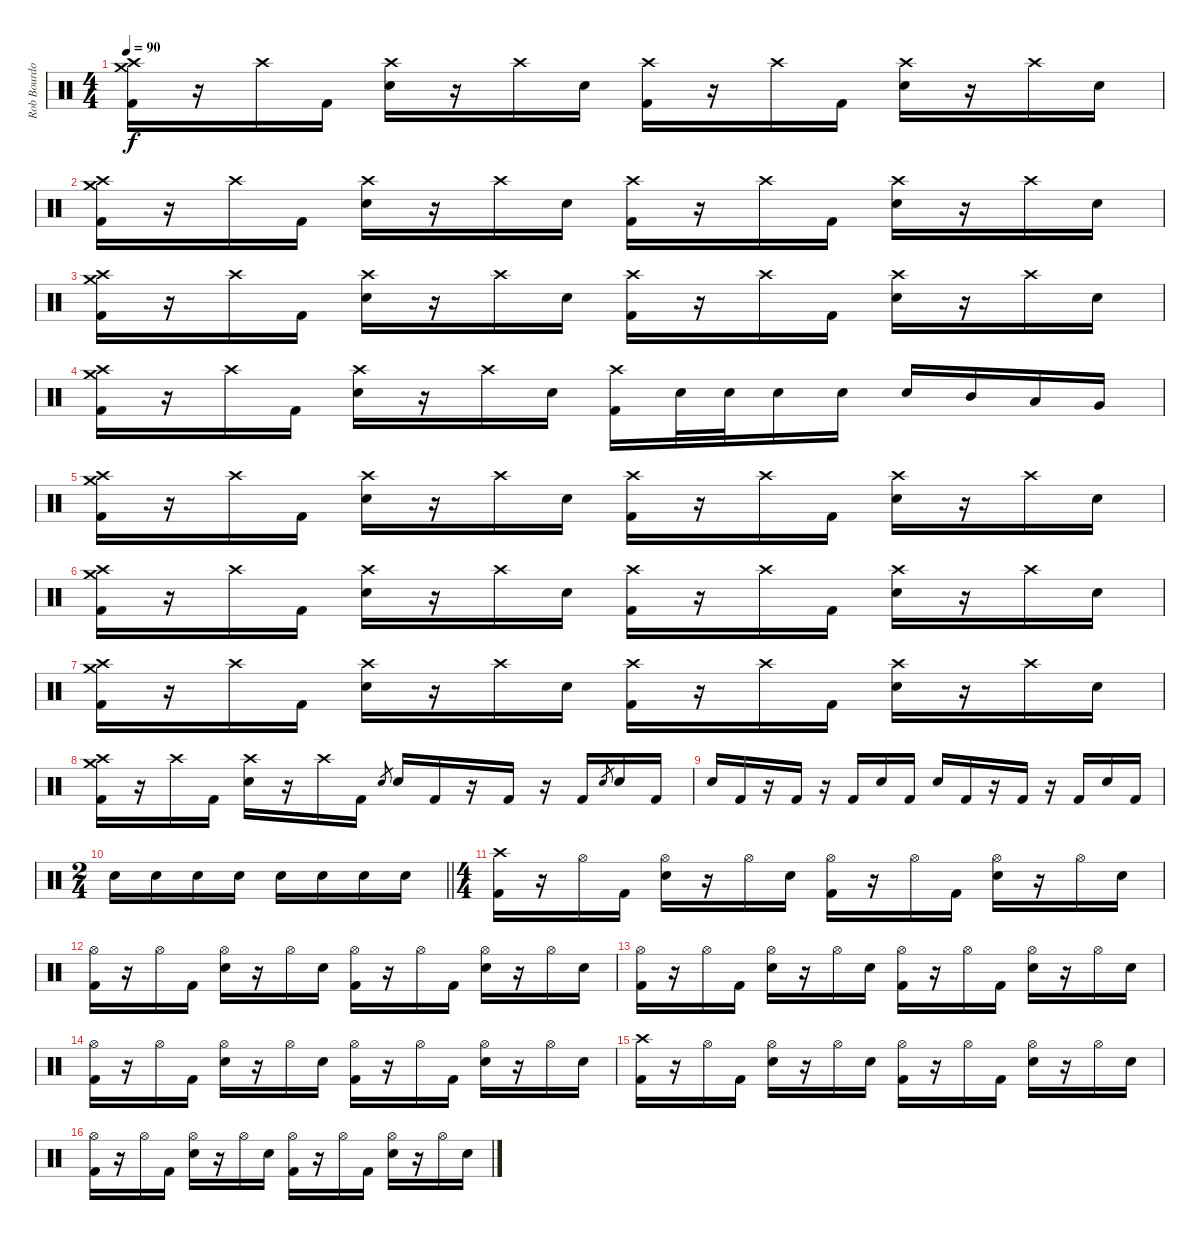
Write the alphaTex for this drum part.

\track ("Rob Bourdon - Drums" "Rob Bourdo") {instrument percussion}
\staff {score}
\articulation defaults
\ts (4 4)
\tempo 90
\clef neutral
\ks c
("Crash high (hit)" "Crash medium (hit)" "Kick (hit) 2").16{dy f} r.16 "Crash high (hit)".16 "Kick (hit) 2".16 ("Crash high (hit)" "Electric Snare (hit)").16 r.16 "Crash high (hit)".16 "Electric Snare (hit)".16 ("Crash high (hit)" "Kick (hit) 2").16 r.16 "Crash high (hit)".16 "Kick (hit) 2".16 ("Crash high (hit)" "Electric Snare (hit)").16 r.16 "Crash high (hit)".16 "Electric Snare (hit)".16 |
("Crash high (hit)" "Crash medium (hit)" "Kick (hit) 2").16 r.16 "Crash high (hit)".16 "Kick (hit) 2".16 ("Crash high (hit)" "Electric Snare (hit)").16 r.16 "Crash high (hit)".16 "Electric Snare (hit)".16 ("Crash high (hit)" "Kick (hit) 2").16 r.16 "Crash high (hit)".16 "Kick (hit) 2".16 ("Crash high (hit)" "Electric Snare (hit)").16 r.16 "Crash high (hit)".16 "Electric Snare (hit)".16 |
("Crash high (hit)" "Crash medium (hit)" "Kick (hit) 2").16 r.16 "Crash high (hit)".16 "Kick (hit) 2".16 ("Crash high (hit)" "Electric Snare (hit)").16 r.16 "Crash high (hit)".16 "Electric Snare (hit)".16 ("Crash high (hit)" "Kick (hit) 2").16 r.16 "Crash high (hit)".16 "Kick (hit) 2".16 ("Crash high (hit)" "Electric Snare (hit)").16 r.16 "Crash high (hit)".16 "Electric Snare (hit)".16 |
("Crash high (hit)" "Crash medium (hit)" "Kick (hit) 2").16 r.16 "Crash high (hit)".16 "Kick (hit) 2".16 ("Crash high (hit)" "Electric Snare (hit)").16 r.16 "Crash high (hit)".16 "Electric Snare (hit)".16 ("Crash high (hit)" "Kick (hit) 2").16 "Electric Snare (hit)".32 "Electric Snare (hit)".32 "Electric Snare (hit)".16 "Electric Snare (hit)".16 "Electric Snare (hit)".16 "Mid Tom (hit)".16 "Low Tom (hit)".16 "Very Low Tom (hit)".16 |
("Crash high (hit)" "Crash medium (hit)" "Kick (hit) 2").16 r.16 "Crash high (hit)".16 "Kick (hit) 2".16 ("Crash high (hit)" "Electric Snare (hit)").16 r.16 "Crash high (hit)".16 "Electric Snare (hit)".16 ("Crash high (hit)" "Kick (hit) 2").16 r.16 "Crash high (hit)".16 "Kick (hit) 2".16 ("Crash high (hit)" "Electric Snare (hit)").16 r.16 "Crash high (hit)".16 "Electric Snare (hit)".16 |
("Crash high (hit)" "Crash medium (hit)" "Kick (hit) 2").16 r.16 "Crash high (hit)".16 "Kick (hit) 2".16 ("Crash high (hit)" "Electric Snare (hit)").16 r.16 "Crash high (hit)".16 "Electric Snare (hit)".16 ("Crash high (hit)" "Kick (hit) 2").16 r.16 "Crash high (hit)".16 "Kick (hit) 2".16 ("Crash high (hit)" "Electric Snare (hit)").16 r.16 "Crash high (hit)".16 "Electric Snare (hit)".16 |
("Crash high (hit)" "Crash medium (hit)" "Kick (hit) 2").16 r.16 "Crash high (hit)".16 "Kick (hit) 2".16 ("Crash high (hit)" "Electric Snare (hit)").16 r.16 "Crash high (hit)".16 "Electric Snare (hit)".16 ("Crash high (hit)" "Kick (hit) 2").16 r.16 "Crash high (hit)".16 "Kick (hit) 2".16 ("Crash high (hit)" "Electric Snare (hit)").16 r.16 "Crash high (hit)".16 "Electric Snare (hit)".16 |
("Crash high (hit)" "Crash medium (hit)" "Kick (hit) 2").16 r.16 "Crash high (hit)".16 "Kick (hit) 2".16 ("Crash high (hit)" "Electric Snare (hit)").16 r.16 "Crash high (hit)".16 "Kick (hit) 2".16 "Electric Snare (hit)".8{gr} "Electric Snare (hit)".16 "Kick (hit) 2".16 r.16 "Kick (hit) 2".16 r.16 "Kick (hit) 2".16 "Electric Snare (hit)".8{gr} "Electric Snare (hit)".16 "Kick (hit) 2".16 |
"Electric Snare (hit)".16 "Kick (hit) 2".16 r.16 "Kick (hit) 2".16 r.16 "Kick (hit) 2".16 "Electric Snare (hit)".16 "Kick (hit) 2".16 "Electric Snare (hit)".16 "Kick (hit) 2".16 r.16 "Kick (hit) 2".16 r.16 "Kick (hit) 2".16 "Electric Snare (hit)".16 "Kick (hit) 2".16 |
\ts (2 4)
\barLineRight lightlight "Electric Snare (hit)".16 "Electric Snare (hit)".16 "Electric Snare (hit)".16 "Electric Snare (hit)".16 "Electric Snare (hit)".16 "Electric Snare (hit)".16 "Electric Snare (hit)".16 "Electric Snare (hit)".16
|
\ts (4 4)
("Crash high (hit)" "Kick (hit) 2").16 r.16 "Hi-Hat (open)".16 "Kick (hit) 2".16 ("Hi-Hat (open)" "Electric Snare (hit)").16 r.16 "Hi-Hat (open)".16 "Electric Snare (hit)".16 ("Hi-Hat (open)" "Kick (hit) 2").16 r.16 "Hi-Hat (open)".16 "Kick (hit) 2".16 ("Hi-Hat (open)" "Electric Snare (hit)").16 r.16 "Hi-Hat (open)".16 "Electric Snare (hit)".16 |
("Hi-Hat (open)" "Kick (hit) 2").16 r.16 "Hi-Hat (open)".16 "Kick (hit) 2".16 ("Hi-Hat (open)" "Electric Snare (hit)").16 r.16 "Hi-Hat (open)".16 "Electric Snare (hit)".16 ("Hi-Hat (open)" "Kick (hit) 2").16 r.16 "Hi-Hat (open)".16 "Kick (hit) 2".16 ("Hi-Hat (open)" "Electric Snare (hit)").16 r.16 "Hi-Hat (open)".16 "Electric Snare (hit)".16 |
("Hi-Hat (open)" "Kick (hit) 2").16 r.16 "Hi-Hat (open)".16 "Kick (hit) 2".16 ("Hi-Hat (open)" "Electric Snare (hit)").16 r.16 "Hi-Hat (open)".16 "Electric Snare (hit)".16 ("Hi-Hat (open)" "Kick (hit) 2").16 r.16 "Hi-Hat (open)".16 "Kick (hit) 2".16 ("Hi-Hat (open)" "Electric Snare (hit)").16 r.16 "Hi-Hat (open)".16 "Electric Snare (hit)".16 |
("Hi-Hat (open)" "Kick (hit) 2").16 r.16 "Hi-Hat (open)".16 "Kick (hit) 2".16 ("Hi-Hat (open)" "Electric Snare (hit)").16 r.16 "Hi-Hat (open)".16 "Electric Snare (hit)".16 ("Hi-Hat (open)" "Kick (hit) 2").16 r.16 "Hi-Hat (open)".16 "Kick (hit) 2".16 ("Hi-Hat (open)" "Electric Snare (hit)").16 r.16 "Hi-Hat (open)".16 "Electric Snare (hit)".16 |
("Crash high (hit)" "Kick (hit) 2").16 r.16 "Hi-Hat (open)".16 "Kick (hit) 2".16 ("Hi-Hat (open)" "Electric Snare (hit)").16 r.16 "Hi-Hat (open)".16 "Electric Snare (hit)".16 ("Hi-Hat (open)" "Kick (hit) 2").16 r.16 "Hi-Hat (open)".16 "Kick (hit) 2".16 ("Hi-Hat (open)" "Electric Snare (hit)").16 r.16 "Hi-Hat (open)".16 "Electric Snare (hit)".16 |
("Hi-Hat (open)" "Kick (hit) 2").16 r.16 "Hi-Hat (open)".16 "Kick (hit) 2".16 ("Hi-Hat (open)" "Electric Snare (hit)").16 r.16 "Hi-Hat (open)".16 "Electric Snare (hit)".16 ("Hi-Hat (open)" "Kick (hit) 2").16 r.16 "Hi-Hat (open)".16 "Kick (hit) 2".16 ("Hi-Hat (open)" "Electric Snare (hit)").16 r.16 "Hi-Hat (open)".16 "Electric Snare (hit)".16
